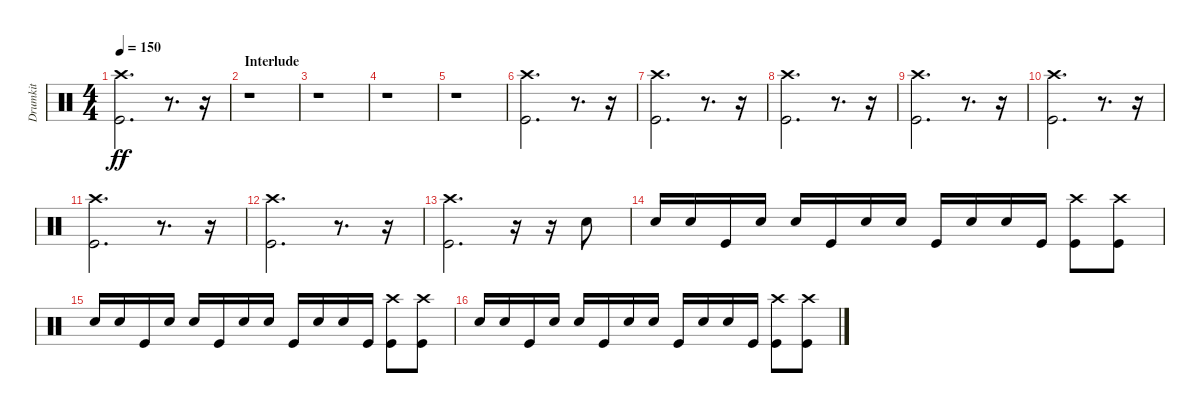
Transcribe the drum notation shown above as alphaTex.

\track ("Drumkit" "Drumkit") {instrument percussion}
\staff {score}
\articulation defaults
\ts (4 4)
\tempo 150
\clef neutral
\ks c
("Kick (hit)" "Crash high (hit)").2{d dy ff} r.8{d} r.16 |
\section ("" "Interlude")
r.1 |
r.1 |
r.1 |
r.1 |
("Kick (hit)" "Crash high (hit)").2{d} r.8{d} r.16 |
("Kick (hit)" "Crash high (hit)").2{d} r.8{d} r.16 |
("Kick (hit)" "Crash high (hit)").2{d} r.8{d} r.16 |
("Kick (hit)" "Crash high (hit)").2{d} r.8{d} r.16 |
("Kick (hit)" "Crash high (hit)").2{d} r.8{d} r.16 |
("Kick (hit)" "Crash high (hit)").2{d} r.8{d} r.16 |
("Kick (hit)" "Crash high (hit)").2{d} r.8{d} r.16 |
("Kick (hit)" "Crash high (hit)").2{d} r.16 r.16 "Snare (hit) 2".8 |
"Snare (hit) 2".16 "Snare (hit) 2".16 "Kick (hit)".16 "Snare (hit) 2".16 "Snare (hit) 2".16 "Kick (hit)".16 "Snare (hit) 2".16 "Snare (hit) 2".16 "Kick (hit)".16 "Snare (hit) 2".16 "Snare (hit) 2".16 "Kick (hit)".16 ("Kick (hit)" "Crash high (hit)").8 ("Kick (hit)" "Crash high (hit)").8 |
"Snare (hit) 2".16 "Snare (hit) 2".16 "Kick (hit)".16 "Snare (hit) 2".16 "Snare (hit) 2".16 "Kick (hit)".16 "Snare (hit) 2".16 "Snare (hit) 2".16 "Kick (hit)".16 "Snare (hit) 2".16 "Snare (hit) 2".16 "Kick (hit)".16 ("Kick (hit)" "Crash high (hit)").8 ("Kick (hit)" "Crash high (hit)").8 |
"Snare (hit) 2".16 "Snare (hit) 2".16 "Kick (hit)".16 "Snare (hit) 2".16 "Snare (hit) 2".16 "Kick (hit)".16 "Snare (hit) 2".16 "Snare (hit) 2".16 "Kick (hit)".16 "Snare (hit) 2".16 "Snare (hit) 2".16 "Kick (hit)".16 ("Kick (hit)" "Crash high (hit)").8 ("Kick (hit)" "Crash high (hit)").8
